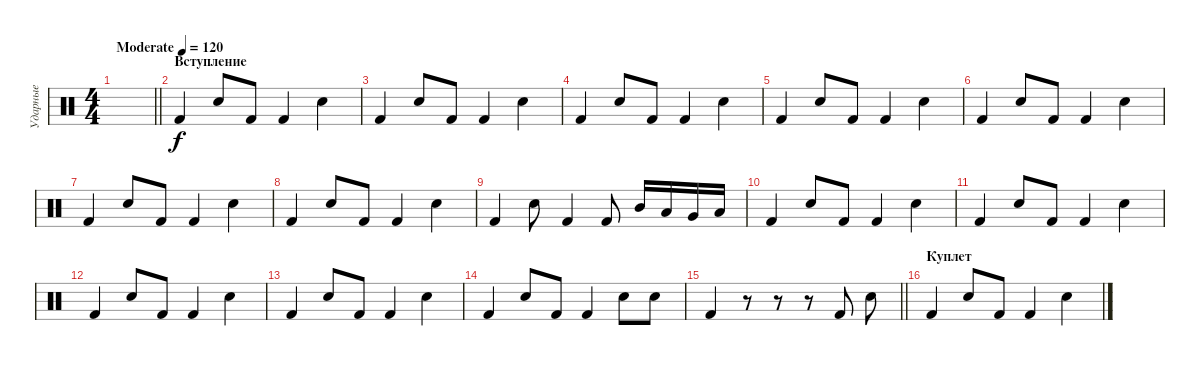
\track ("Ударные" "Ударные") {instrument percussion}
\staff {score}
\articulation defaults
\ts (4 4)
\tempo (120 "Moderate")
\clef neutral
\barLineRight lightlight
\ks c
|
\section ("" "Вступление")
"Kick (hit) 2".4 "Electric Snare (hit)".8 "Kick (hit) 2".8 "Kick (hit) 2".4 "Electric Snare (hit)".4 |
"Kick (hit) 2".4 "Electric Snare (hit)".8 "Kick (hit) 2".8 "Kick (hit) 2".4 "Electric Snare (hit)".4 |
"Kick (hit) 2".4 "Electric Snare (hit)".8 "Kick (hit) 2".8 "Kick (hit) 2".4 "Electric Snare (hit)".4 |
"Kick (hit) 2".4 "Electric Snare (hit)".8 "Kick (hit) 2".8 "Kick (hit) 2".4 "Electric Snare (hit)".4 |
"Kick (hit) 2".4 "Electric Snare (hit)".8 "Kick (hit) 2".8 "Kick (hit) 2".4 "Electric Snare (hit)".4 |
"Kick (hit) 2".4 "Electric Snare (hit)".8 "Kick (hit) 2".8 "Kick (hit) 2".4 "Electric Snare (hit)".4 |
"Kick (hit) 2".4 "Electric Snare (hit)".8 "Kick (hit) 2".8 "Kick (hit) 2".4 "Electric Snare (hit)".4 |
"Kick (hit) 2".4 "Electric Snare (hit)".8 "Kick (hit) 2".4 "Kick (hit) 2".8 "Mid Tom (hit)".16 "Low Tom (hit)".16 "Very Low Tom (hit)".16 "Low Floor Tom (hit)".16 |
"Kick (hit) 2".4 "Electric Snare (hit)".8 "Kick (hit) 2".8 "Kick (hit) 2".4 "Electric Snare (hit)".4 |
"Kick (hit) 2".4 "Electric Snare (hit)".8 "Kick (hit) 2".8 "Kick (hit) 2".4 "Electric Snare (hit)".4 |
"Kick (hit) 2".4 "Electric Snare (hit)".8 "Kick (hit) 2".8 "Kick (hit) 2".4 "Electric Snare (hit)".4 |
"Kick (hit) 2".4 "Electric Snare (hit)".8 "Kick (hit) 2".8 "Kick (hit) 2".4 "Electric Snare (hit)".4 |
"Kick (hit) 2".4 "Electric Snare (hit)".8 "Kick (hit) 2".8 "Kick (hit) 2".4 "Electric Snare (hit)".8 "Electric Snare (hit)".8 |
\barLineRight lightlight "Kick (hit) 2".4
r.8 r.8 r.8 "Kick (hit) 2".8 "Electric Snare (hit)".8 |
\section ("" "Куплет")
"Kick (hit) 2".4 "Electric Snare (hit)".8 "Kick (hit) 2".8 "Kick (hit) 2".4 "Electric Snare (hit)".4
